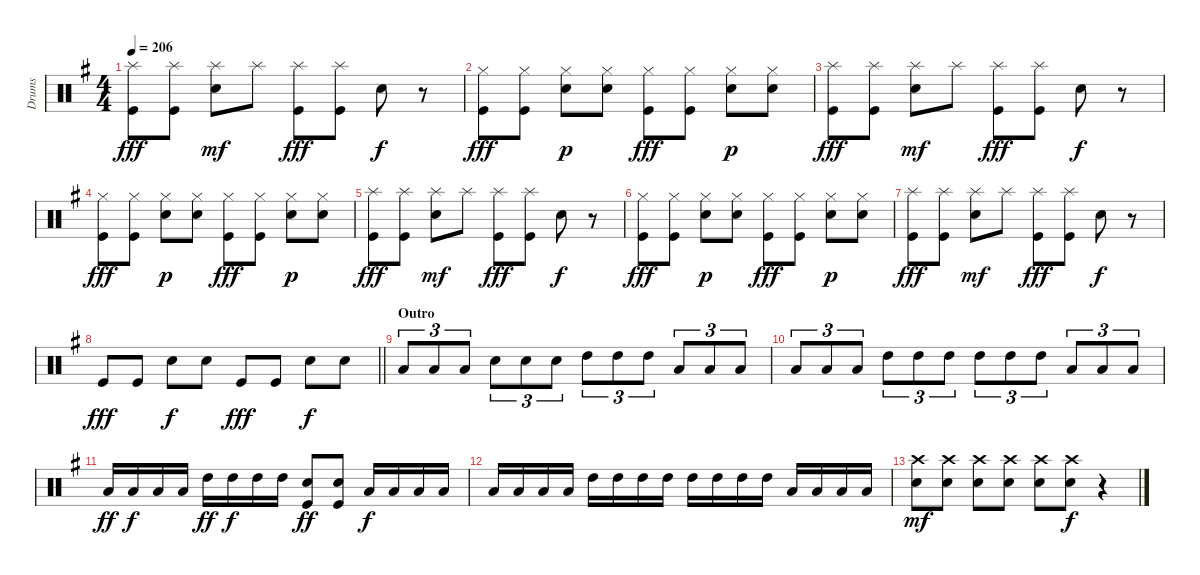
\track ("Drums" "Drums") {instrument percussion}
\staff {score}
\articulation defaults
\ts (4 4)
\tempo 206
\clef neutral
\ks g
("Splash (hit)" "Kick (hit)").8{dy fff} ("Splash (hit)" "Kick (hit)").8 ("Splash (hit)" "Snare (hit) 2").8{dy mf} "Splash (hit)".8 ("Splash (hit)" "Kick (hit)").8{dy fff} ("Splash (hit)" "Kick (hit)").8 "Snare (hit) 2".8{dy f} r.8 |
("Hi-Hat (closed)" "Kick (hit)").8{dy fff} ("Hi-Hat (closed)" "Kick (hit)").8 ("Hi-Hat (closed)" "Snare (hit) 2").8{dy p} ("Hi-Hat (closed)" "Snare (hit) 2").8 ("Hi-Hat (closed)" "Kick (hit)").8{dy fff} ("Hi-Hat (closed)" "Kick (hit)").8 ("Hi-Hat (closed)" "Snare (hit) 2").8{dy p} ("Hi-Hat (closed)" "Snare (hit) 2").8 |
("Splash (hit)" "Kick (hit)").8{dy fff} ("Splash (hit)" "Kick (hit)").8 ("Splash (hit)" "Snare (hit) 2").8{dy mf} "Splash (hit)".8 ("Splash (hit)" "Kick (hit)").8{dy fff} ("Splash (hit)" "Kick (hit)").8 "Snare (hit) 2".8{dy f} r.8 |
("Hi-Hat (closed)" "Kick (hit)").8{dy fff} ("Hi-Hat (closed)" "Kick (hit)").8 ("Hi-Hat (closed)" "Snare (hit) 2").8{dy p} ("Hi-Hat (closed)" "Snare (hit) 2").8 ("Hi-Hat (closed)" "Kick (hit)").8{dy fff} ("Hi-Hat (closed)" "Kick (hit)").8 ("Hi-Hat (closed)" "Snare (hit) 2").8{dy p} ("Hi-Hat (closed)" "Snare (hit) 2").8 |
("Splash (hit)" "Kick (hit)").8{dy fff} ("Splash (hit)" "Kick (hit)").8 ("Splash (hit)" "Snare (hit) 2").8{dy mf} "Splash (hit)".8 ("Splash (hit)" "Kick (hit)").8{dy fff} ("Splash (hit)" "Kick (hit)").8 "Snare (hit) 2".8{dy f} r.8 |
("Hi-Hat (closed)" "Kick (hit)").8{dy fff} ("Hi-Hat (closed)" "Kick (hit)").8 ("Hi-Hat (closed)" "Snare (hit) 2").8{dy p} ("Hi-Hat (closed)" "Snare (hit) 2").8 ("Hi-Hat (closed)" "Kick (hit)").8{dy fff} ("Hi-Hat (closed)" "Kick (hit)").8 ("Hi-Hat (closed)" "Snare (hit) 2").8{dy p} ("Hi-Hat (closed)" "Snare (hit) 2").8 |
("Splash (hit)" "Kick (hit)").8{dy fff} ("Splash (hit)" "Kick (hit)").8 ("Splash (hit)" "Snare (hit) 2").8{dy mf} "Splash (hit)".8 ("Splash (hit)" "Kick (hit)").8{dy fff} ("Splash (hit)" "Kick (hit)").8 "Snare (hit) 2".8{dy f} r.8 |
\barLineRight lightlight "Kick (hit)".8{dy fff} "Kick (hit)".8 "Snare (hit) 2".8{dy f} "Snare (hit) 2".8 "Kick (hit)".8{dy fff} "Kick (hit)".8 "Snare (hit) 2".8{dy f} "Snare (hit) 2".8
|
\section ("" "Outro")
"Low Tom (hit)".8{tu (3 2)} "Low Tom (hit)".8{tu (3 2)} "Low Tom (hit)".8{tu (3 2)} "Snare (hit) 2".8{tu (3 2)} "Snare (hit) 2".8{tu (3 2)} "Snare (hit) 2".8{tu (3 2)} "High Tom (hit)".8{tu (3 2)} "High Tom (hit)".8{tu (3 2)} "High Tom (hit)".8{tu (3 2)} "Low Tom (hit)".8{tu (3 2)} "Low Tom (hit)".8{tu (3 2)} "Low Tom (hit)".8{tu (3 2)} |
"Low Tom (hit)".8{tu (3 2)} "Low Tom (hit)".8{tu (3 2)} "Low Tom (hit)".8{tu (3 2)} "High Tom (hit)".8{tu (3 2)} "High Tom (hit)".8{tu (3 2)} "High Tom (hit)".8{tu (3 2)} "High Tom (hit)".8{tu (3 2)} "High Tom (hit)".8{tu (3 2)} "High Tom (hit)".8{tu (3 2)} "Low Tom (hit)".8{tu (3 2)} "Low Tom (hit)".8{tu (3 2)} "Low Tom (hit)".8{tu (3 2)} |
"Low Tom (hit)".16{dy ff} "Low Tom (hit)".16{dy f} "Low Tom (hit)".16 "Low Tom (hit)".16 "High Tom (hit)".16{dy ff} "High Tom (hit)".16{dy f} "High Tom (hit)".16 "High Tom (hit)".16 ("Snare (hit) 2" "Kick (hit)").8{dy ff} ("Snare (hit) 2" "Kick (hit)").8 "Low Tom (hit)".16{dy f} "Low Tom (hit)".16 "Low Tom (hit)".16 "Low Tom (hit)".16 |
"Low Tom (hit)".16 "Low Tom (hit)".16 "Low Tom (hit)".16 "Low Tom (hit)".16 "High Tom (hit)".16 "High Tom (hit)".16 "High Tom (hit)".16 "High Tom (hit)".16 "High Tom (hit)".16 "High Tom (hit)".16 "High Tom (hit)".16 "High Tom (hit)".16 "Low Tom (hit)".16 "Low Tom (hit)".16 "Low Tom (hit)".16 "Low Tom (hit)".16 |
("Crash high (hit)" "Snare (hit) 2").8{dy mf} ("Crash high (hit)" "Snare (hit) 2").8 ("Crash high (hit)" "Snare (hit) 2").8 ("Crash high (hit)" "Snare (hit) 2").8 ("Crash high (hit)" "Snare (hit) 2").8 ("Crash high (hit)" "Snare (hit) 2").8{dy f} r.4
